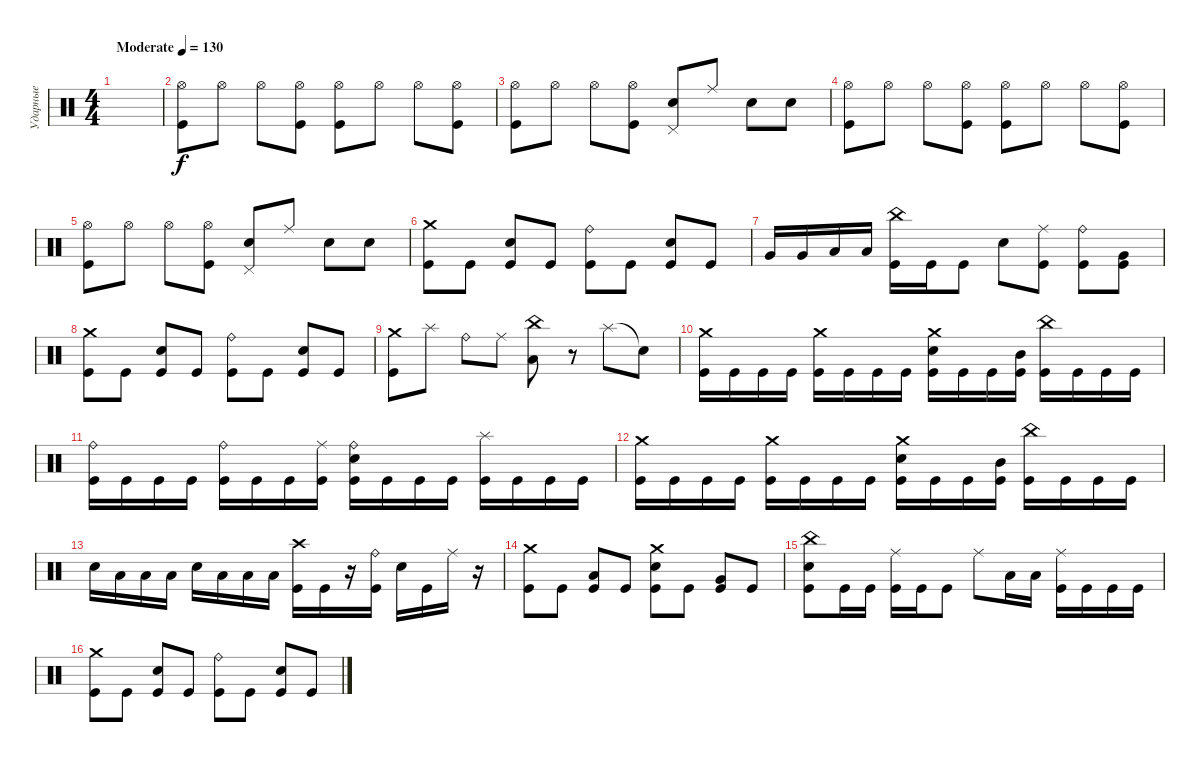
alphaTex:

\track ("Ударные" "Ударные") {instrument percussion}
\staff {score}
\articulation defaults
\ts (4 4)
\tempo (130 "Moderate")
\clef neutral
\ks c
|
("Hi-Hat (open)" "Kick (hit)").8 "Hi-Hat (open)".8 "Hi-Hat (open)".8 ("Hi-Hat (open)" "Kick (hit)").8 ("Hi-Hat (open)" "Kick (hit)").8 "Hi-Hat (open)".8 "Hi-Hat (open)".8 ("Hi-Hat (open)" "Kick (hit)").8 |
("Hi-Hat (open)" "Kick (hit)").8 "Hi-Hat (open)".8 "Hi-Hat (open)".8 ("Hi-Hat (open)" "Kick (hit)").8 ("Pedal Hi-Hat (hit)" "Electric Snare (hit)").8 "Ride (middle)".8 "Electric Snare (hit)".8 "Electric Snare (hit)".8 |
("Hi-Hat (open)" "Kick (hit)").8 "Hi-Hat (open)".8 "Hi-Hat (open)".8 ("Hi-Hat (open)" "Kick (hit)").8 ("Hi-Hat (open)" "Kick (hit)").8 "Hi-Hat (open)".8 "Hi-Hat (open)".8 ("Hi-Hat (open)" "Kick (hit)").8 |
("Hi-Hat (open)" "Kick (hit)").8 "Hi-Hat (open)".8 "Hi-Hat (open)".8 ("Hi-Hat (open)" "Kick (hit)").8 ("Pedal Hi-Hat (hit)" "Electric Snare (hit)").8 "Ride (middle)".8 "Electric Snare (hit)".8 "Electric Snare (hit)".8 |
("Crash medium (hit)" "Kick (hit)").8 "Kick (hit)".8 ("Electric Snare (hit)" "Kick (hit)").8 "Kick (hit)".8 ("Ride (bell)" "Kick (hit)").8 "Kick (hit)".8 ("Electric Snare (hit)" "Kick (hit)").8 "Kick (hit)".8 |
"Very Low Tom (hit)".16 "Very Low Tom (hit)".16 "Low Floor Tom (hit)".16 "Low Floor Tom (hit)".16 ("China (hit)" "Kick (hit)").16 "Kick (hit)".16 "Kick (hit)".8 "Electric Snare (hit)".8 ("Ride (middle)" "Kick (hit)").8 ("Ride (bell)" "Kick (hit)").8 ("Very Low Tom (hit)" "Kick (hit)").8 |
("Crash medium (hit)" "Kick (hit)").8 "Kick (hit)".8 ("Electric Snare (hit)" "Kick (hit)").8 "Kick (hit)".8 ("Ride (bell)" "Kick (hit)").8 "Kick (hit)".8 ("Electric Snare (hit)" "Kick (hit)").8 "Kick (hit)".8 |
("Crash medium (hit)" "Kick (hit)").8 "Splash (hit)".8 "Ride (bell)".8 "Ride (middle)".8 ("China (hit)" "Low Floor Tom (hit)").8 r.8 "Splash (hit)".8 "Snare (hit)"{t}.8 |
("Crash medium (hit)" "Kick (hit)").16 "Kick (hit)".16 "Kick (hit)".16 "Kick (hit)".16 ("Crash medium (hit)" "Kick (hit)").16 "Kick (hit)".16 "Kick (hit)".16 "Kick (hit)".16 ("Crash medium (hit)" "Electric Snare (hit)" "Kick (hit)").16 "Kick (hit)".16 "Kick (hit)".16 ("Mid Tom (hit)" "Kick (hit)").16 ("China (hit)" "Kick (hit)").16 "Kick (hit)".16 "Kick (hit)".16 "Kick (hit)".16 |
("Ride (bell)" "Kick (hit)").16 "Kick (hit)".16 "Kick (hit)".16 "Kick (hit)".16 ("Ride (bell)" "Kick (hit)").16 "Kick (hit)".16 "Kick (hit)".16 ("Ride (middle)" "Kick (hit)").16 ("Ride (bell)" "Electric Snare (hit)" "Kick (hit)").16 "Kick (hit)".16 "Kick (hit)".16 "Kick (hit)".16 ("Splash (hit)" "Kick (hit)").16 "Kick (hit)".16 "Kick (hit)".16 "Kick (hit)".16 |
("Crash medium (hit)" "Kick (hit)").16 "Kick (hit)".16 "Kick (hit)".16 "Kick (hit)".16 ("Crash medium (hit)" "Kick (hit)").16 "Kick (hit)".16 "Kick (hit)".16 "Kick (hit)".16 ("Crash medium (hit)" "Electric Snare (hit)" "Kick (hit)").16 "Kick (hit)".16 "Kick (hit)".16 ("Mid Tom (hit)" "Kick (hit)").16 ("China (hit)" "Kick (hit)").16 "Kick (hit)".16 "Kick (hit)".16 "Kick (hit)".16 |
"Electric Snare (hit)".16 "Low Tom (hit)".16 "Low Tom (hit)".16 "Low Tom (hit)".16 "Electric Snare (hit)".16 "Low Floor Tom (hit)".16 "Low Floor Tom (hit)".16 "Low Floor Tom (hit)".16 ("Crash high (hit)" "Kick (hit)").16 "Kick (hit)".16 r.16 ("Ride (bell)" "Kick (hit)").16 "Electric Snare (hit)".16 "Kick (hit)".16 "Ride (middle)".16 r.16 |
("Crash medium (hit)" "Kick (hit)").8 "Kick (hit)".8 ("Low Floor Tom (hit)" "Kick (hit)").8 "Kick (hit)".8 ("Crash medium (hit)" "Electric Snare (hit)" "Kick (hit)").8 "Kick (hit)".8 ("Very Low Tom (hit)" "Kick (hit)").8 "Kick (hit)".8 |
("China (hit)" "Electric Snare (hit)" "Kick (hit)").8 "Kick (hit)".16 "Kick (hit)".16 ("Ride (middle)" "Kick (hit)").16 "Kick (hit)".16 "Kick (hit)".8 "Ride (middle)".8 "Low Tom (hit)".16 "Low Tom (hit)".16 ("Ride (middle)" "Kick (hit)").16 "Kick (hit)".16 "Kick (hit)".16 "Kick (hit)".16 |
("Crash medium (hit)" "Kick (hit)").8 "Kick (hit)".8 ("Electric Snare (hit)" "Kick (hit)").8 "Kick (hit)".8 ("Ride (bell)" "Kick (hit)").8 "Kick (hit)".8 ("Electric Snare (hit)" "Kick (hit)").8 "Kick (hit)".8
